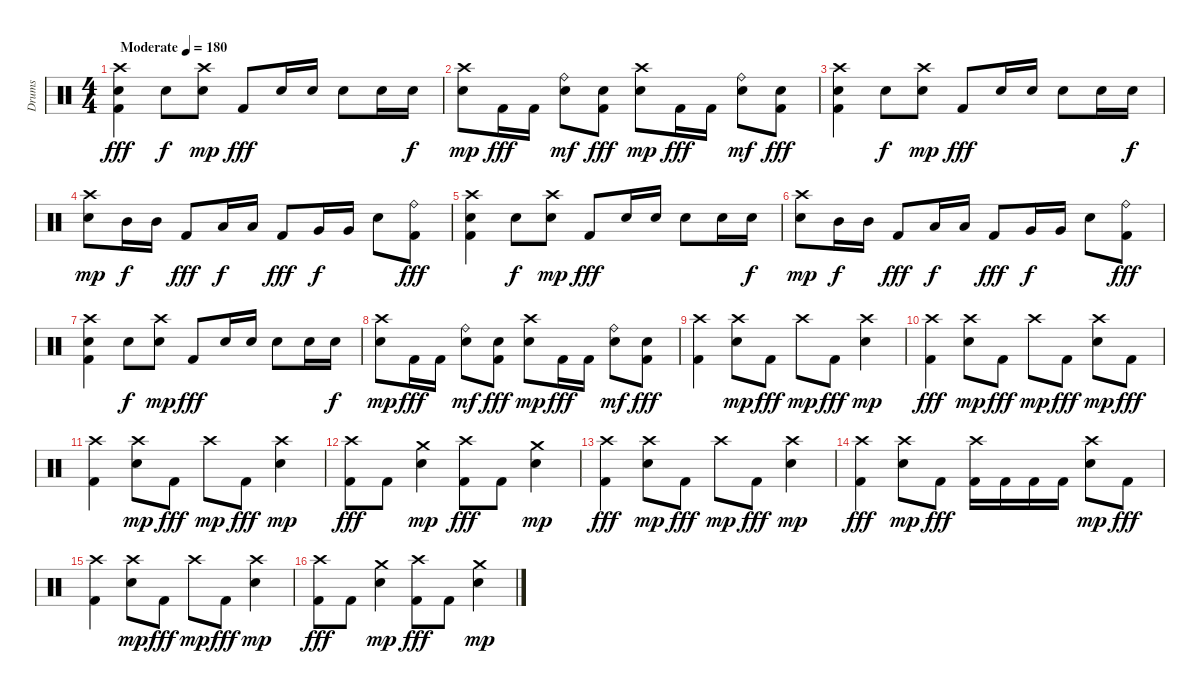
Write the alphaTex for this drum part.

\track ("Drums" "Drums") {instrument percussion}
\staff {score}
\articulation defaults
\ts (4 4)
\tempo (180 "Moderate")
\clef neutral
\ks c
("Crash high (hit)" "Electric Snare (hit)" "Kick (hit) 2").4{dy fff} "Electric Snare (hit)".8{dy f} ("Crash high (hit)" "Electric Snare (hit)").8{dy mp} "Kick (hit) 2".8{dy fff} "Electric Snare (hit)".16 "Electric Snare (hit)".16 "Electric Snare (hit)".8 "Electric Snare (hit)".16 "Electric Snare (hit)".16{dy f} |
("Crash high (hit)" "Electric Snare (hit)").8{dy mp} "Kick (hit) 2".16{dy fff} "Kick (hit) 2".16 ("Ride (bell)" "Electric Snare (hit)").8{dy mf} ("Electric Snare (hit)" "Kick (hit) 2").8{dy fff} ("Crash high (hit)" "Electric Snare (hit)").8{dy mp} "Kick (hit) 2".16{dy fff} "Kick (hit) 2".16 ("Ride (bell)" "Electric Snare (hit)").8{dy mf} ("Electric Snare (hit)" "Kick (hit) 2").8{dy fff} |
("Crash high (hit)" "Electric Snare (hit)" "Kick (hit) 2").4 "Electric Snare (hit)".8{dy f} ("Crash high (hit)" "Electric Snare (hit)").8{dy mp} "Kick (hit) 2".8{dy fff} "Electric Snare (hit)".16 "Electric Snare (hit)".16 "Electric Snare (hit)".8 "Electric Snare (hit)".16 "Electric Snare (hit)".16{dy f} |
("Crash high (hit)" "Electric Snare (hit)").8{dy mp} "Mid Tom (hit)".16{dy f} "Mid Tom (hit)".16 "Kick (hit) 2".8{dy fff} "Low Tom (hit)".16{dy f} "Low Tom (hit)".16 "Kick (hit) 2".8{dy fff} "Very Low Tom (hit)".16{dy f} "Very Low Tom (hit)".16 "Electric Snare (hit)".8 ("Ride (bell)" "Kick (hit) 2").8{dy fff} |
("Crash high (hit)" "Electric Snare (hit)" "Kick (hit) 2").4 "Electric Snare (hit)".8{dy f} ("Crash high (hit)" "Electric Snare (hit)").8{dy mp} "Kick (hit) 2".8{dy fff} "Electric Snare (hit)".16 "Electric Snare (hit)".16 "Electric Snare (hit)".8 "Electric Snare (hit)".16 "Electric Snare (hit)".16{dy f} |
("Crash high (hit)" "Electric Snare (hit)").8{dy mp} "Mid Tom (hit)".16{dy f} "Mid Tom (hit)".16 "Kick (hit) 2".8{dy fff} "Low Tom (hit)".16{dy f} "Low Tom (hit)".16 "Kick (hit) 2".8{dy fff} "Very Low Tom (hit)".16{dy f} "Very Low Tom (hit)".16 "Electric Snare (hit)".8 ("Ride (bell)" "Kick (hit) 2").8{dy fff} |
("Crash high (hit)" "Electric Snare (hit)" "Kick (hit) 2").4 "Electric Snare (hit)".8{dy f} ("Crash high (hit)" "Electric Snare (hit)").8{dy mp} "Kick (hit) 2".8{dy fff} "Electric Snare (hit)".16 "Electric Snare (hit)".16 "Electric Snare (hit)".8 "Electric Snare (hit)".16 "Electric Snare (hit)".16{dy f} |
("Crash high (hit)" "Electric Snare (hit)").8{dy mp} "Kick (hit) 2".16{dy fff} "Kick (hit) 2".16 ("Ride (bell)" "Electric Snare (hit)").8{dy mf} ("Electric Snare (hit)" "Kick (hit) 2").8{dy fff} ("Crash high (hit)" "Electric Snare (hit)").8{dy mp} "Kick (hit) 2".16{dy fff} "Kick (hit) 2".16 ("Ride (bell)" "Electric Snare (hit)").8{dy mf} ("Electric Snare (hit)" "Kick (hit) 2").8{dy fff} |
("Crash high (hit)" "Kick (hit) 2").4 ("Crash high (hit)" "Electric Snare (hit)").8{dy mp} "Kick (hit) 2".8{dy fff} "Crash high (hit)".8{dy mp} "Kick (hit) 2".8{dy fff} ("Crash high (hit)" "Electric Snare (hit)").4{dy mp} |
("Crash high (hit)" "Kick (hit) 2").4{dy fff} ("Crash high (hit)" "Electric Snare (hit)").8{dy mp} "Kick (hit) 2".8{dy fff} "Crash high (hit)".8{dy mp} "Kick (hit) 2".8{dy fff} ("Crash high (hit)" "Electric Snare (hit)").8{dy mp} "Kick (hit) 2".8{dy fff} |
("Crash high (hit)" "Kick (hit) 2").4 ("Crash high (hit)" "Electric Snare (hit)").8{dy mp} "Kick (hit) 2".8{dy fff} "Crash high (hit)".8{dy mp} "Kick (hit) 2".8{dy fff} ("Crash high (hit)" "Electric Snare (hit)").4{dy mp} |
("Crash high (hit)" "Kick (hit) 2").8{dy fff} "Kick (hit) 2".8 ("Crash medium (hit)" "Electric Snare (hit)").4{dy mp} ("Crash high (hit)" "Kick (hit) 2").8{dy fff} "Kick (hit) 2".8 ("Crash medium (hit)" "Electric Snare (hit)").4{dy mp} |
("Crash high (hit)" "Kick (hit) 2").4{dy fff} ("Crash high (hit)" "Electric Snare (hit)").8{dy mp} "Kick (hit) 2".8{dy fff} "Crash high (hit)".8{dy mp} "Kick (hit) 2".8{dy fff} ("Crash high (hit)" "Electric Snare (hit)").4{dy mp} |
("Crash high (hit)" "Kick (hit) 2").4{dy fff} ("Crash high (hit)" "Electric Snare (hit)").8{dy mp} "Kick (hit) 2".8{dy fff} ("Crash high (hit)" "Kick (hit) 2").16 "Kick (hit) 2".16 "Kick (hit) 2".16 "Kick (hit) 2".16 ("Crash high (hit)" "Electric Snare (hit)").8{dy mp} "Kick (hit) 2".8{dy fff} |
("Crash high (hit)" "Kick (hit) 2").4 ("Crash high (hit)" "Electric Snare (hit)").8{dy mp} "Kick (hit) 2".8{dy fff} "Crash high (hit)".8{dy mp} "Kick (hit) 2".8{dy fff} ("Crash high (hit)" "Electric Snare (hit)").4{dy mp} |
("Crash high (hit)" "Kick (hit) 2").8{dy fff} "Kick (hit) 2".8 ("Crash medium (hit)" "Electric Snare (hit)").4{dy mp} ("Crash high (hit)" "Kick (hit) 2").8{dy fff} "Kick (hit) 2".8 ("Crash medium (hit)" "Electric Snare (hit)").4{dy mp}
